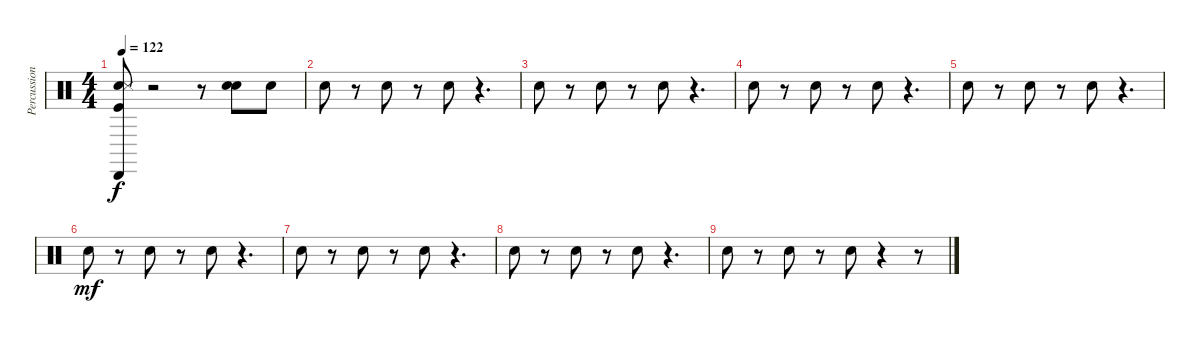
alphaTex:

\track ("Percussion" "Percussion") {instrument percussion}
\staff {score}
\articulation defaults
\ts (4 4)
\tempo 122
\clef neutral
\ks c
("Cabasa (hit)" "Snare (hit) 2" "Snare (side stick) 3" "Kick (hit)").8{dy f} r.2 r.8 ("Snare (hit) 2" "Snare (hit) 2").8 "Snare (hit) 2".8 |
"Snare (hit) 2".8 r.8 "Snare (hit) 2".8 r.8 "Snare (hit) 2".8 r.4{d} |
"Snare (hit) 2".8 r.8 "Snare (hit) 2".8 r.8 "Snare (hit) 2".8 r.4{d} |
"Snare (hit) 2".8 r.8 "Snare (hit) 2".8 r.8 "Snare (hit) 2".8 r.4{d} |
"Snare (hit) 2".8 r.8 "Snare (hit) 2".8 r.8 "Snare (hit) 2".8 r.4{d} |
"Snare (hit) 2".8{dy mf} r.8 "Snare (hit) 2".8 r.8 "Snare (hit) 2".8 r.4{d} |
"Snare (hit) 2".8 r.8 "Snare (hit) 2".8 r.8 "Snare (hit) 2".8 r.4{d} |
"Snare (hit) 2".8 r.8 "Snare (hit) 2".8 r.8 "Snare (hit) 2".8 r.4{d} |
"Snare (hit) 2".8 r.8 "Snare (hit) 2".8 r.8 "Snare (hit) 2".8 r.4 r.8
